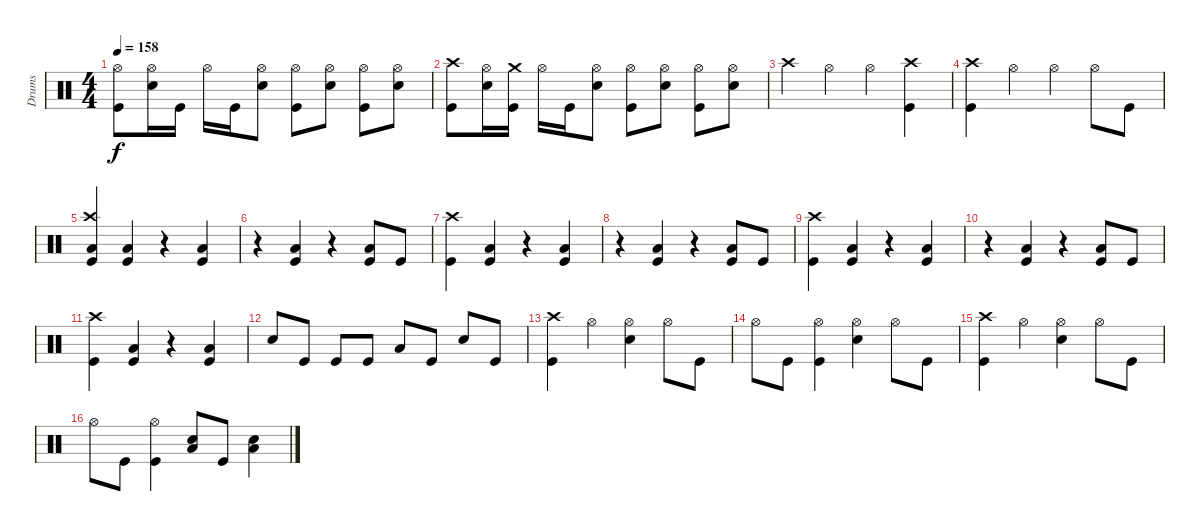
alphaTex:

\track ("Drums" "Drums") {instrument percussion}
\staff {score}
\articulation defaults
\ts (4 4)
\tempo 158
\clef neutral
\ks c
("Hi-Hat (open)" "Kick (hit)").8{dy f} ("Hi-Hat (open)" "Snare (hit) 2").16 "Kick (hit)".16 "Hi-Hat (open)".16 "Kick (hit)".16 ("Hi-Hat (open)" "Snare (hit) 2").8 ("Hi-Hat (open)" "Kick (hit)").8 ("Hi-Hat (open)" "Snare (hit) 2").8 ("Hi-Hat (open)" "Kick (hit)").8 ("Hi-Hat (open)" "Snare (hit) 2").8 |
("Crash high (hit)" "Kick (hit)").8 ("Hi-Hat (open)" "Snare (hit) 2").16 ("Crash medium (hit)" "Kick (hit)").16 "Hi-Hat (open)".16 "Kick (hit)".16 ("Hi-Hat (open)" "Snare (hit) 2").8 ("Hi-Hat (open)" "Kick (hit)").8 ("Hi-Hat (open)" "Snare (hit) 2").8 ("Hi-Hat (open)" "Kick (hit)").8 ("Hi-Hat (open)" "Snare (hit) 2").8 |
"Crash high (hit)".4 "Hi-Hat (open)".4 "Hi-Hat (open)".4 ("Crash high (hit)" "Kick (hit)").4 |
("Crash high (hit)" "Kick (hit)").4 "Hi-Hat (open)".4 "Hi-Hat (open)".4 "Hi-Hat (open)".8 "Kick (hit)".8 |
("Crash high (hit)" "Kick (hit)" "Low Tom (hit)").4 ("Kick (hit)" "Low Tom (hit)").4 r.4 ("Kick (hit)" "Low Tom (hit)").4 |
r.4 ("Kick (hit)" "Low Tom (hit)").4 r.4 ("Kick (hit)" "Low Tom (hit)").8 "Kick (hit)".8 |
("Crash high (hit)" "Kick (hit)").4 ("Kick (hit)" "Low Tom (hit)").4 r.4 ("Kick (hit)" "Low Tom (hit)").4 |
r.4 ("Kick (hit)" "Low Tom (hit)").4 r.4 ("Kick (hit)" "Low Tom (hit)").8 "Kick (hit)".8 |
("Crash high (hit)" "Kick (hit)").4 ("Kick (hit)" "Low Tom (hit)").4 r.4 ("Kick (hit)" "Low Tom (hit)").4 |
r.4 ("Kick (hit)" "Low Tom (hit)").4 r.4 ("Kick (hit)" "Low Tom (hit)").8 "Kick (hit)".8 |
("Crash high (hit)" "Kick (hit)").4 ("Kick (hit)" "Low Tom (hit)").4 r.4 ("Kick (hit)" "Low Tom (hit)").4 |
"Snare (hit) 2".8 "Kick (hit)".8 "Kick (hit)".8 "Kick (hit)".8 "Low Tom (hit)".8 "Kick (hit)".8 "Snare (hit) 2".8 "Kick (hit)".8 |
("Crash high (hit)" "Kick (hit)").4 "Hi-Hat (open)".4 ("Hi-Hat (open)" "Snare (hit) 2").4 "Hi-Hat (open)".8 "Kick (hit)".8 |
"Hi-Hat (open)".8 "Kick (hit)".8 ("Hi-Hat (open)" "Kick (hit)").4 ("Hi-Hat (open)" "Snare (hit) 2").4 "Hi-Hat (open)".8 "Kick (hit)".8 |
("Crash high (hit)" "Kick (hit)").4 "Hi-Hat (open)".4 ("Hi-Hat (open)" "Snare (hit) 2").4 "Hi-Hat (open)".8 "Kick (hit)".8 |
"Hi-Hat (open)".8 "Kick (hit)".8 ("Hi-Hat (open)" "Kick (hit)").4 ("Low Tom (hit)" "Snare (hit) 2").8 "Kick (hit)".8 ("Low Tom (hit)" "Snare (hit) 2").4
